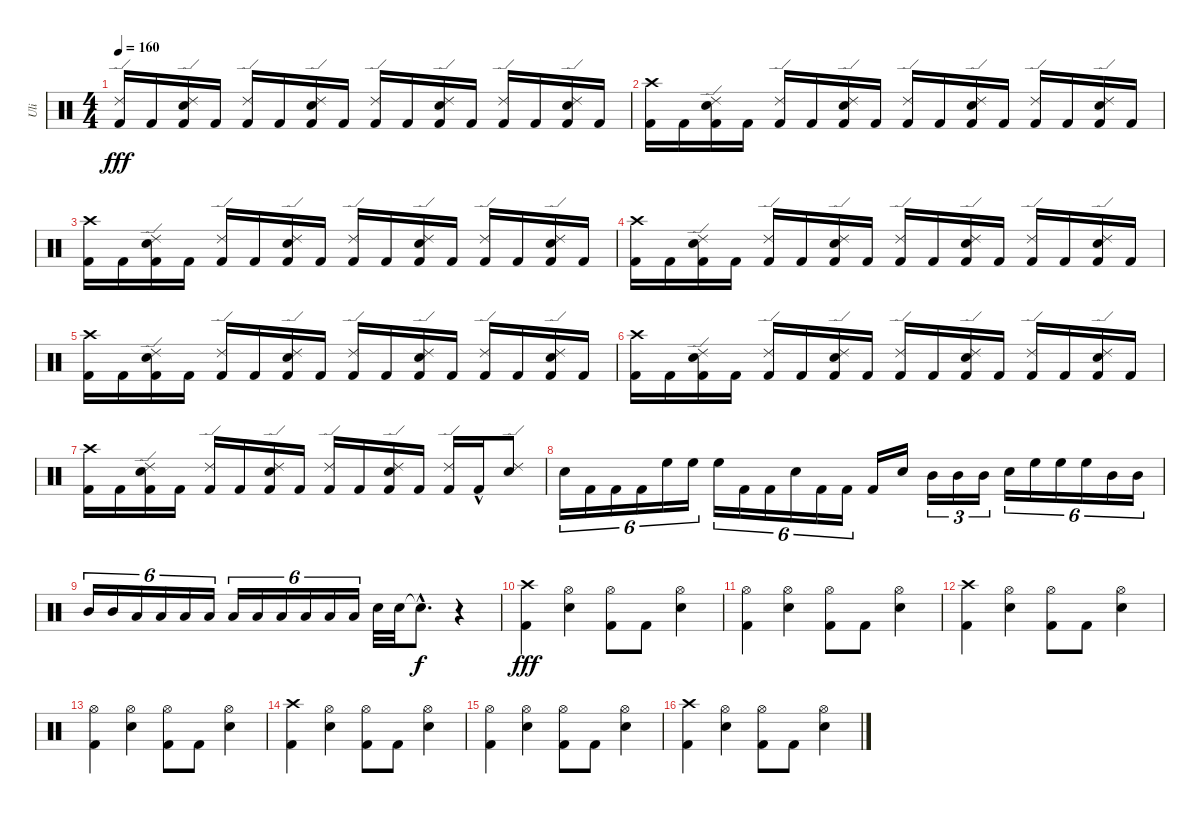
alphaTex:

\track ("Uli" "Uli") {instrument percussion}
\staff {score}
\articulation defaults
\ts (4 4)
\tempo 160
\clef neutral
\ks c
("Kick (hit) 2" "Ride (edge) 2").16{dy fff} "Kick (hit) 2".16 ("Kick (hit) 2" "Electric Snare (hit)" "Ride (edge) 2").16 "Kick (hit) 2".16 ("Kick (hit) 2" "Ride (edge) 2").16 "Kick (hit) 2".16 ("Kick (hit) 2" "Electric Snare (hit)" "Ride (edge) 2").16 "Kick (hit) 2".16 ("Kick (hit) 2" "Ride (edge) 2").16 "Kick (hit) 2".16 ("Kick (hit) 2" "Electric Snare (hit)" "Ride (edge) 2").16 "Kick (hit) 2".16 ("Kick (hit) 2" "Ride (edge) 2").16 "Kick (hit) 2".16 ("Kick (hit) 2" "Electric Snare (hit)" "Ride (edge) 2").16 "Kick (hit) 2".16 |
("Kick (hit) 2" "Crash high (hit)").16 "Kick (hit) 2".16 ("Kick (hit) 2" "Electric Snare (hit)" "Ride (edge) 2").16 "Kick (hit) 2".16 ("Kick (hit) 2" "Ride (edge) 2").16 "Kick (hit) 2".16 ("Kick (hit) 2" "Electric Snare (hit)" "Ride (edge) 2").16 "Kick (hit) 2".16 ("Kick (hit) 2" "Ride (edge) 2").16 "Kick (hit) 2".16 ("Kick (hit) 2" "Electric Snare (hit)" "Ride (edge) 2").16 "Kick (hit) 2".16 ("Kick (hit) 2" "Ride (edge) 2").16 "Kick (hit) 2".16 ("Kick (hit) 2" "Electric Snare (hit)" "Ride (edge) 2").16 "Kick (hit) 2".16 |
("Kick (hit) 2" "Crash high (hit)").16 "Kick (hit) 2".16 ("Kick (hit) 2" "Electric Snare (hit)" "Ride (edge) 2").16 "Kick (hit) 2".16 ("Kick (hit) 2" "Ride (edge) 2").16 "Kick (hit) 2".16 ("Kick (hit) 2" "Electric Snare (hit)" "Ride (edge) 2").16 "Kick (hit) 2".16 ("Kick (hit) 2" "Ride (edge) 2").16 "Kick (hit) 2".16 ("Kick (hit) 2" "Electric Snare (hit)" "Ride (edge) 2").16 "Kick (hit) 2".16 ("Kick (hit) 2" "Ride (edge) 2").16 "Kick (hit) 2".16 ("Kick (hit) 2" "Electric Snare (hit)" "Ride (edge) 2").16 "Kick (hit) 2".16 |
("Kick (hit) 2" "Crash high (hit)").16 "Kick (hit) 2".16 ("Kick (hit) 2" "Electric Snare (hit)" "Ride (edge) 2").16 "Kick (hit) 2".16 ("Kick (hit) 2" "Ride (edge) 2").16 "Kick (hit) 2".16 ("Kick (hit) 2" "Electric Snare (hit)" "Ride (edge) 2").16 "Kick (hit) 2".16 ("Kick (hit) 2" "Ride (edge) 2").16 "Kick (hit) 2".16 ("Kick (hit) 2" "Electric Snare (hit)" "Ride (edge) 2").16 "Kick (hit) 2".16 ("Kick (hit) 2" "Ride (edge) 2").16 "Kick (hit) 2".16 ("Kick (hit) 2" "Electric Snare (hit)" "Ride (edge) 2").16 "Kick (hit) 2".16 |
("Kick (hit) 2" "Crash high (hit)").16 "Kick (hit) 2".16 ("Kick (hit) 2" "Electric Snare (hit)" "Ride (edge) 2").16 "Kick (hit) 2".16 ("Kick (hit) 2" "Ride (edge) 2").16 "Kick (hit) 2".16 ("Kick (hit) 2" "Electric Snare (hit)" "Ride (edge) 2").16 "Kick (hit) 2".16 ("Kick (hit) 2" "Ride (edge) 2").16 "Kick (hit) 2".16 ("Kick (hit) 2" "Electric Snare (hit)" "Ride (edge) 2").16 "Kick (hit) 2".16 ("Kick (hit) 2" "Ride (edge) 2").16 "Kick (hit) 2".16 ("Kick (hit) 2" "Electric Snare (hit)" "Ride (edge) 2").16 "Kick (hit) 2".16 |
("Kick (hit) 2" "Crash high (hit)").16 "Kick (hit) 2".16 ("Kick (hit) 2" "Electric Snare (hit)" "Ride (edge) 2").16 "Kick (hit) 2".16 ("Kick (hit) 2" "Ride (edge) 2").16 "Kick (hit) 2".16 ("Kick (hit) 2" "Electric Snare (hit)" "Ride (edge) 2").16 "Kick (hit) 2".16 ("Kick (hit) 2" "Ride (edge) 2").16 "Kick (hit) 2".16 ("Kick (hit) 2" "Electric Snare (hit)" "Ride (edge) 2").16 "Kick (hit) 2".16 ("Kick (hit) 2" "Ride (edge) 2").16 "Kick (hit) 2".16 ("Kick (hit) 2" "Electric Snare (hit)" "Ride (edge) 2").16 "Kick (hit) 2".16 |
("Kick (hit) 2" "Crash high (hit)").16 "Kick (hit) 2".16 ("Kick (hit) 2" "Electric Snare (hit)" "Ride (edge) 2").16 "Kick (hit) 2".16 ("Kick (hit) 2" "Ride (edge) 2").16 "Kick (hit) 2".16 ("Kick (hit) 2" "Electric Snare (hit)" "Ride (edge) 2").16 "Kick (hit) 2".16 ("Kick (hit) 2" "Ride (edge) 2").16 "Kick (hit) 2".16 ("Kick (hit) 2" "Electric Snare (hit)" "Ride (edge) 2").16 "Kick (hit) 2".16 ("Kick (hit) 2" "Ride (edge) 2").16 "Kick (hit) 2"{hac}.16 ("Electric Snare (hit)" "Ride (edge) 2").8 |
"Electric Snare (hit)".16{tu (6 4)} "Kick (hit) 2".16{tu (6 4)} "Kick (hit) 2".16{tu (6 4)} "Kick (hit) 2".16{tu (6 4)} "High Floor Tom (hit)".16{tu (6 4)} "High Floor Tom (hit)".16{tu (6 4)} "High Floor Tom (hit)".16{tu (6 4)} "Kick (hit) 2".16{tu (6 4)} "Kick (hit) 2".16{tu (6 4)} "Electric Snare (hit)".16{tu (6 4)} "Kick (hit) 2".16{tu (6 4)} "Kick (hit) 2".16{tu (6 4)} "Kick (hit) 2".16 "Electric Snare (hit)".16 "Mid Tom (hit)".16{tu (3 2)} "Mid Tom (hit)".16{tu (3 2)} "Mid Tom (hit)".16{tu (3 2)} "Electric Snare (hit)".16{tu (6 4)} "High Floor Tom (hit)".16{tu (6 4)} "High Floor Tom (hit)".16{tu (6 4)} "High Floor Tom (hit)".16{tu (6 4)} "Mid Tom (hit)".16{tu (6 4)} "Mid Tom (hit)".16{tu (6 4)} |
"Mid Tom (hit)".16{tu (6 4)} "Mid Tom (hit)".16{tu (6 4)} "Low Tom (hit)".16{tu (6 4)} "Low Tom (hit)".16{tu (6 4)} "Low Tom (hit)".16{tu (6 4)} "Low Tom (hit)".16{tu (6 4)} "Low Floor Tom (hit)".16{tu (6 4)} "Low Floor Tom (hit)".16{tu (6 4)} "Low Tom (hit)".16{tu (6 4)} "Low Floor Tom (hit)".16{tu (6 4)} "Low Floor Tom (hit)".16{tu (6 4)} "Low Floor Tom (hit)".16{tu (6 4)} "Electric Snare (hit)".32 "Electric Snare (hit)".32 "Snare (hit)"{hac t}.8{d dy f} r.4 |
("Kick (hit) 2" "Crash high (hit)").4{dy fff} ("Electric Snare (hit)" "Hi-Hat (open)").4 ("Kick (hit) 2" "Hi-Hat (open)").8 "Kick (hit) 2".8 ("Electric Snare (hit)" "Hi-Hat (open)").4 |
("Hi-Hat (open)" "Kick (hit) 2").4 ("Electric Snare (hit)" "Hi-Hat (open)").4 ("Kick (hit) 2" "Hi-Hat (open)").8 "Kick (hit) 2".8 ("Electric Snare (hit)" "Hi-Hat (open)").4 |
("Kick (hit) 2" "Crash high (hit)").4 ("Electric Snare (hit)" "Hi-Hat (open)").4 ("Kick (hit) 2" "Hi-Hat (open)").8 "Kick (hit) 2".8 ("Electric Snare (hit)" "Hi-Hat (open)").4 |
("Hi-Hat (open)" "Kick (hit) 2").4 ("Electric Snare (hit)" "Hi-Hat (open)").4 ("Kick (hit) 2" "Hi-Hat (open)").8 "Kick (hit) 2".8 ("Electric Snare (hit)" "Hi-Hat (open)").4 |
("Kick (hit) 2" "Crash high (hit)").4 ("Electric Snare (hit)" "Hi-Hat (open)").4 ("Kick (hit) 2" "Hi-Hat (open)").8 "Kick (hit) 2".8 ("Electric Snare (hit)" "Hi-Hat (open)").4 |
("Hi-Hat (open)" "Kick (hit) 2").4 ("Electric Snare (hit)" "Hi-Hat (open)").4 ("Kick (hit) 2" "Hi-Hat (open)").8 "Kick (hit) 2".8 ("Electric Snare (hit)" "Hi-Hat (open)").4 |
("Kick (hit) 2" "Crash high (hit)").4 ("Electric Snare (hit)" "Hi-Hat (open)").4 ("Kick (hit) 2" "Hi-Hat (open)").8 "Kick (hit) 2".8 ("Electric Snare (hit)" "Hi-Hat (open)").4
